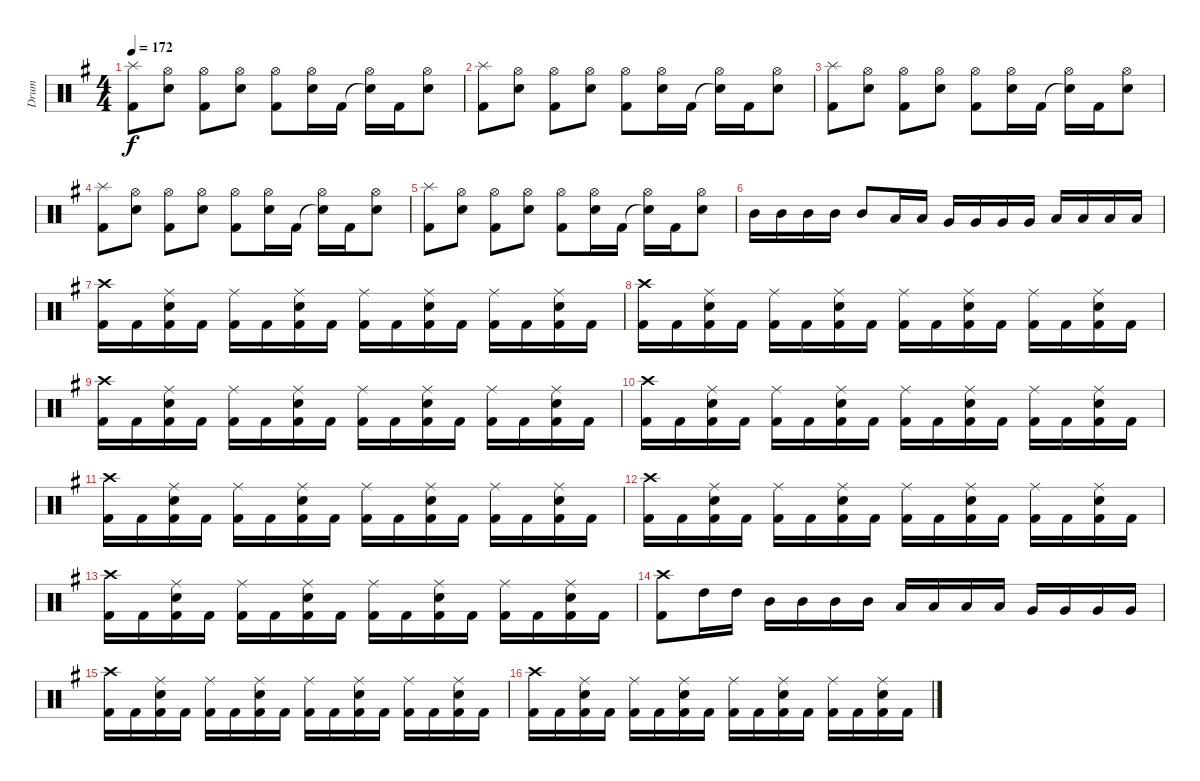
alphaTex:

\track ("Drum" "Drum") {instrument percussion}
\staff {score}
\articulation defaults
\ts (4 4)
\tempo 172
\clef neutral
\ks eminor
("Kick (hit) 2" "Splash (hit)").8{dy f} ("Electric Snare (hit)" "Hi-Hat (open)").8 ("Kick (hit) 2" "Hi-Hat (open)").8 ("Electric Snare (hit)" "Hi-Hat (open)").8 ("Kick (hit) 2" "Hi-Hat (open)").8 ("Electric Snare (hit)" "Hi-Hat (open)").16 "Kick (hit) 2".16 ("Snare (hit)"{t} "Hi-Hat (open)").16 "Kick (hit) 2".16 ("Electric Snare (hit)" "Hi-Hat (open)").8 |
("Kick (hit) 2" "Splash (hit)").8 ("Electric Snare (hit)" "Hi-Hat (open)").8 ("Kick (hit) 2" "Hi-Hat (open)").8 ("Electric Snare (hit)" "Hi-Hat (open)").8 ("Kick (hit) 2" "Hi-Hat (open)").8 ("Electric Snare (hit)" "Hi-Hat (open)").16 "Kick (hit) 2".16 ("Snare (hit)"{t} "Hi-Hat (open)").16 "Kick (hit) 2".16 ("Electric Snare (hit)" "Hi-Hat (open)").8 |
("Kick (hit) 2" "Splash (hit)").8 ("Electric Snare (hit)" "Hi-Hat (open)").8 ("Kick (hit) 2" "Hi-Hat (open)").8 ("Electric Snare (hit)" "Hi-Hat (open)").8 ("Kick (hit) 2" "Hi-Hat (open)").8 ("Electric Snare (hit)" "Hi-Hat (open)").16 "Kick (hit) 2".16 ("Snare (hit)"{t} "Hi-Hat (open)").16 "Kick (hit) 2".16 ("Electric Snare (hit)" "Hi-Hat (open)").8 |
("Kick (hit) 2" "Splash (hit)").8 ("Electric Snare (hit)" "Hi-Hat (open)").8 ("Kick (hit) 2" "Hi-Hat (open)").8 ("Electric Snare (hit)" "Hi-Hat (open)").8 ("Kick (hit) 2" "Hi-Hat (open)").8 ("Electric Snare (hit)" "Hi-Hat (open)").16 "Kick (hit) 2".16 ("Snare (hit)"{t} "Hi-Hat (open)").16 "Kick (hit) 2".16 ("Electric Snare (hit)" "Hi-Hat (open)").8 |
("Kick (hit) 2" "Splash (hit)").8 ("Electric Snare (hit)" "Hi-Hat (open)").8 ("Kick (hit) 2" "Hi-Hat (open)").8 ("Electric Snare (hit)" "Hi-Hat (open)").8 ("Kick (hit) 2" "Hi-Hat (open)").8 ("Electric Snare (hit)" "Hi-Hat (open)").16 "Kick (hit) 2".16 ("Snare (hit)"{t} "Hi-Hat (open)").16 "Kick (hit) 2".16 ("Electric Snare (hit)" "Hi-Hat (open)").8 |
"Mid Tom (hit)".16 "Mid Tom (hit)".16 "Mid Tom (hit)".16 "Mid Tom (hit)".16 "Mid Tom (hit)".8 "Low Tom (hit)".16 "Low Tom (hit)".16 "Very Low Tom (hit)".16 "Very Low Tom (hit)".16 "Very Low Tom (hit)".16 "Very Low Tom (hit)".16 "Low Floor Tom (hit)".16 "Low Floor Tom (hit)".16 "Low Floor Tom (hit)".16 "Low Floor Tom (hit)".16 |
("Kick (hit) 2" "Crash high (hit)").16 "Kick (hit) 2".16 ("Kick (hit) 2" "Ride (middle)" "Electric Snare (hit)").16 "Kick (hit) 2".16 ("Kick (hit) 2" "Ride (middle)").16 "Kick (hit) 2".16 ("Kick (hit) 2" "Ride (middle)" "Electric Snare (hit)").16 "Kick (hit) 2".16 ("Kick (hit) 2" "Ride (middle)").16 "Kick (hit) 2".16 ("Kick (hit) 2" "Ride (middle)" "Electric Snare (hit)").16 "Kick (hit) 2".16 ("Kick (hit) 2" "Ride (middle)").16 "Kick (hit) 2".16 ("Kick (hit) 2" "Ride (middle)" "Electric Snare (hit)").16 "Kick (hit) 2".16 |
("Kick (hit) 2" "Crash high (hit)").16 "Kick (hit) 2".16 ("Kick (hit) 2" "Ride (middle)" "Electric Snare (hit)").16 "Kick (hit) 2".16 ("Kick (hit) 2" "Ride (middle)").16 "Kick (hit) 2".16 ("Kick (hit) 2" "Ride (middle)" "Electric Snare (hit)").16 "Kick (hit) 2".16 ("Kick (hit) 2" "Ride (middle)").16 "Kick (hit) 2".16 ("Kick (hit) 2" "Ride (middle)" "Electric Snare (hit)").16 "Kick (hit) 2".16 ("Kick (hit) 2" "Ride (middle)").16 "Kick (hit) 2".16 ("Kick (hit) 2" "Ride (middle)" "Electric Snare (hit)").16 "Kick (hit) 2".16 |
("Kick (hit) 2" "Crash high (hit)").16 "Kick (hit) 2".16 ("Kick (hit) 2" "Ride (middle)" "Electric Snare (hit)").16 "Kick (hit) 2".16 ("Kick (hit) 2" "Ride (middle)").16 "Kick (hit) 2".16 ("Kick (hit) 2" "Ride (middle)" "Electric Snare (hit)").16 "Kick (hit) 2".16 ("Kick (hit) 2" "Ride (middle)").16 "Kick (hit) 2".16 ("Kick (hit) 2" "Ride (middle)" "Electric Snare (hit)").16 "Kick (hit) 2".16 ("Kick (hit) 2" "Ride (middle)").16 "Kick (hit) 2".16 ("Kick (hit) 2" "Ride (middle)" "Electric Snare (hit)").16 "Kick (hit) 2".16 |
("Kick (hit) 2" "Crash high (hit)").16 "Kick (hit) 2".16 ("Kick (hit) 2" "Ride (middle)" "Electric Snare (hit)").16 "Kick (hit) 2".16 ("Kick (hit) 2" "Ride (middle)").16 "Kick (hit) 2".16 ("Kick (hit) 2" "Ride (middle)" "Electric Snare (hit)").16 "Kick (hit) 2".16 ("Kick (hit) 2" "Ride (middle)").16 "Kick (hit) 2".16 ("Kick (hit) 2" "Ride (middle)" "Electric Snare (hit)").16 "Kick (hit) 2".16 ("Kick (hit) 2" "Ride (middle)").16 "Kick (hit) 2".16 ("Kick (hit) 2" "Ride (middle)" "Electric Snare (hit)").16 "Kick (hit) 2".16 |
("Kick (hit) 2" "Crash high (hit)").16 "Kick (hit) 2".16 ("Kick (hit) 2" "Ride (middle)" "Electric Snare (hit)").16 "Kick (hit) 2".16 ("Kick (hit) 2" "Ride (middle)").16 "Kick (hit) 2".16 ("Kick (hit) 2" "Ride (middle)" "Electric Snare (hit)").16 "Kick (hit) 2".16 ("Kick (hit) 2" "Ride (middle)").16 "Kick (hit) 2".16 ("Kick (hit) 2" "Ride (middle)" "Electric Snare (hit)").16 "Kick (hit) 2".16 ("Kick (hit) 2" "Ride (middle)").16 "Kick (hit) 2".16 ("Kick (hit) 2" "Ride (middle)" "Electric Snare (hit)").16 "Kick (hit) 2".16 |
("Kick (hit) 2" "Crash high (hit)").16 "Kick (hit) 2".16 ("Kick (hit) 2" "Ride (middle)" "Electric Snare (hit)").16 "Kick (hit) 2".16 ("Kick (hit) 2" "Ride (middle)").16 "Kick (hit) 2".16 ("Kick (hit) 2" "Ride (middle)" "Electric Snare (hit)").16 "Kick (hit) 2".16 ("Kick (hit) 2" "Ride (middle)").16 "Kick (hit) 2".16 ("Kick (hit) 2" "Ride (middle)" "Electric Snare (hit)").16 "Kick (hit) 2".16 ("Kick (hit) 2" "Ride (middle)").16 "Kick (hit) 2".16 ("Kick (hit) 2" "Ride (middle)" "Electric Snare (hit)").16 "Kick (hit) 2".16 |
("Kick (hit) 2" "Crash high (hit)").16 "Kick (hit) 2".16 ("Kick (hit) 2" "Ride (middle)" "Electric Snare (hit)").16 "Kick (hit) 2".16 ("Kick (hit) 2" "Ride (middle)").16 "Kick (hit) 2".16 ("Kick (hit) 2" "Ride (middle)" "Electric Snare (hit)").16 "Kick (hit) 2".16 ("Kick (hit) 2" "Ride (middle)").16 "Kick (hit) 2".16 ("Kick (hit) 2" "Ride (middle)" "Electric Snare (hit)").16 "Kick (hit) 2".16 ("Kick (hit) 2" "Ride (middle)").16 "Kick (hit) 2".16 ("Kick (hit) 2" "Ride (middle)" "Electric Snare (hit)").16 "Kick (hit) 2".16 |
("Kick (hit) 2" "Crash high (hit)").8 "High Tom (hit)".16 "High Tom (hit)".16 "Mid Tom (hit)".16 "Mid Tom (hit)".16 "Mid Tom (hit)".16 "Mid Tom (hit)".16 "Low Tom (hit)".16 "Low Tom (hit)".16 "Low Tom (hit)".16 "Low Tom (hit)".16 "Very Low Tom (hit)".16 "Very Low Tom (hit)".16 "Very Low Tom (hit)".16 "Very Low Tom (hit)".16 |
("Kick (hit) 2" "Crash high (hit)").16 "Kick (hit) 2".16 ("Kick (hit) 2" "Ride (middle)" "Electric Snare (hit)").16 "Kick (hit) 2".16 ("Kick (hit) 2" "Ride (middle)").16 "Kick (hit) 2".16 ("Kick (hit) 2" "Ride (middle)" "Electric Snare (hit)").16 "Kick (hit) 2".16 ("Kick (hit) 2" "Ride (middle)").16 "Kick (hit) 2".16 ("Kick (hit) 2" "Ride (middle)" "Electric Snare (hit)").16 "Kick (hit) 2".16 ("Kick (hit) 2" "Ride (middle)").16 "Kick (hit) 2".16 ("Kick (hit) 2" "Ride (middle)" "Electric Snare (hit)").16 "Kick (hit) 2".16 |
("Kick (hit) 2" "Crash high (hit)").16 "Kick (hit) 2".16 ("Kick (hit) 2" "Ride (middle)" "Electric Snare (hit)").16 "Kick (hit) 2".16 ("Kick (hit) 2" "Ride (middle)").16 "Kick (hit) 2".16 ("Kick (hit) 2" "Ride (middle)" "Electric Snare (hit)").16 "Kick (hit) 2".16 ("Kick (hit) 2" "Ride (middle)").16 "Kick (hit) 2".16 ("Kick (hit) 2" "Ride (middle)" "Electric Snare (hit)").16 "Kick (hit) 2".16 ("Kick (hit) 2" "Ride (middle)").16 "Kick (hit) 2".16 ("Kick (hit) 2" "Ride (middle)" "Electric Snare (hit)").16 "Kick (hit) 2".16
